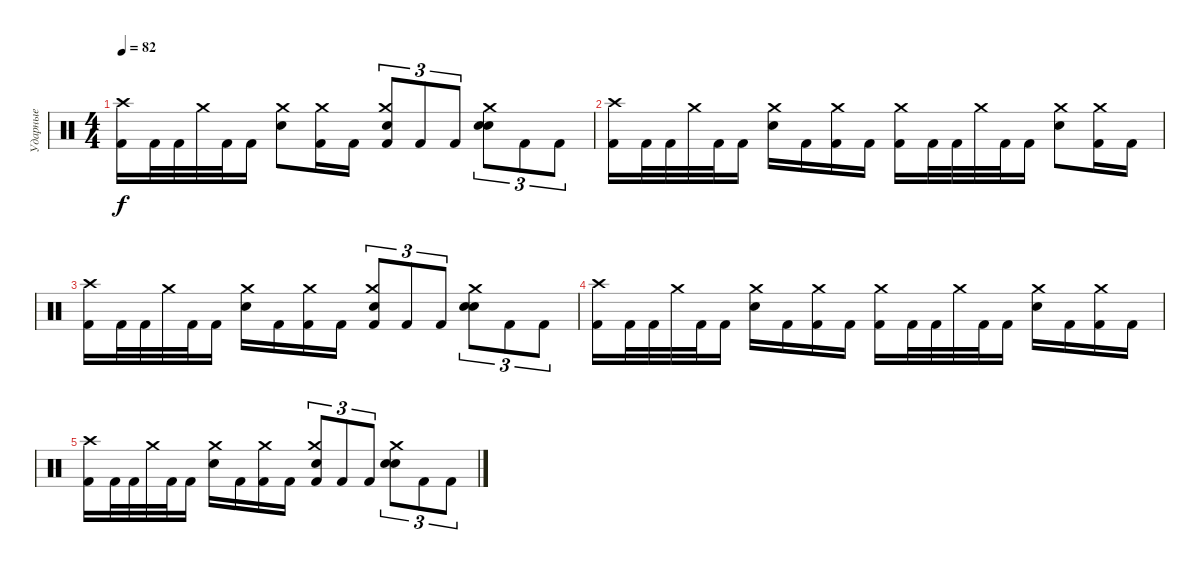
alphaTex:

\track ("Ударные" "Ударные") {instrument percussion}
\staff {score}
\articulation defaults
\ts (4 4)
\tempo 82
\clef neutral
\ks c
("Crash high (hit)" "Kick (hit) 2").16{dy f} "Kick (hit) 2".32 "Kick (hit) 2".32 "Crash medium (hit)".32 "Kick (hit) 2".32 "Kick (hit) 2".16 ("Crash medium (hit)" "Electric Snare (hit)").8 ("Crash medium (hit)" "Kick (hit) 2").16 "Kick (hit) 2".16 ("Crash medium (hit)" "Electric Snare (hit)" "Kick (hit) 2").8{tu (3 2)} "Kick (hit) 2".8{tu (3 2)} "Kick (hit) 2".8{tu (3 2)} ("Crash medium (hit)" "Electric Snare (hit)" "Electric Snare (hit)").8{tu (3 2)} "Kick (hit) 2".8{tu (3 2)} "Kick (hit) 2".8{tu (3 2)} |
("Crash high (hit)" "Kick (hit) 2").16 "Kick (hit) 2".32 "Kick (hit) 2".32 "Crash medium (hit)".32 "Kick (hit) 2".32 "Kick (hit) 2".16 ("Crash medium (hit)" "Electric Snare (hit)").16 "Kick (hit) 2".16 ("Crash medium (hit)" "Kick (hit) 2").16 "Kick (hit) 2".16 ("Crash medium (hit)" "Kick (hit) 2").16 "Kick (hit) 2".32 "Kick (hit) 2".32 "Crash medium (hit)".32 "Kick (hit) 2".32 "Kick (hit) 2".16 ("Crash medium (hit)" "Electric Snare (hit)").8 ("Crash medium (hit)" "Kick (hit) 2").16 "Kick (hit) 2".16 |
("Crash high (hit)" "Kick (hit) 2").16 "Kick (hit) 2".32 "Kick (hit) 2".32 "Crash medium (hit)".32 "Kick (hit) 2".32 "Kick (hit) 2".16 ("Crash medium (hit)" "Electric Snare (hit)").16 "Kick (hit) 2".16 ("Crash medium (hit)" "Kick (hit) 2").16 "Kick (hit) 2".16 ("Crash medium (hit)" "Electric Snare (hit)" "Kick (hit) 2").8{tu (3 2)} "Kick (hit) 2".8{tu (3 2)} "Kick (hit) 2".8{tu (3 2)} ("Crash medium (hit)" "Electric Snare (hit)" "Electric Snare (hit)").8{tu (3 2)} "Kick (hit) 2".8{tu (3 2)} "Kick (hit) 2".8{tu (3 2)} |
("Crash high (hit)" "Kick (hit) 2").16 "Kick (hit) 2".32 "Kick (hit) 2".32 "Crash medium (hit)".32 "Kick (hit) 2".32 "Kick (hit) 2".16 ("Crash medium (hit)" "Electric Snare (hit)").16 "Kick (hit) 2".16 ("Crash medium (hit)" "Kick (hit) 2").16 "Kick (hit) 2".16 ("Crash medium (hit)" "Kick (hit) 2").16 "Kick (hit) 2".32 "Kick (hit) 2".32 "Crash medium (hit)".32 "Kick (hit) 2".32 "Kick (hit) 2".16 ("Crash medium (hit)" "Electric Snare (hit)").16 "Kick (hit) 2".16 ("Crash medium (hit)" "Kick (hit) 2").16 "Kick (hit) 2".16 |
("Crash high (hit)" "Kick (hit) 2").16 "Kick (hit) 2".32 "Kick (hit) 2".32 "Crash medium (hit)".32 "Kick (hit) 2".32 "Kick (hit) 2".16 ("Crash medium (hit)" "Electric Snare (hit)").16 "Kick (hit) 2".16 ("Crash medium (hit)" "Kick (hit) 2").16 "Kick (hit) 2".16 ("Crash medium (hit)" "Electric Snare (hit)" "Kick (hit) 2").8{tu (3 2)} "Kick (hit) 2".8{tu (3 2)} "Kick (hit) 2".8{tu (3 2)} ("Crash medium (hit)" "Electric Snare (hit)" "Electric Snare (hit)").8{tu (3 2)} "Kick (hit) 2".8{tu (3 2)} "Kick (hit) 2".8{tu (3 2)}
